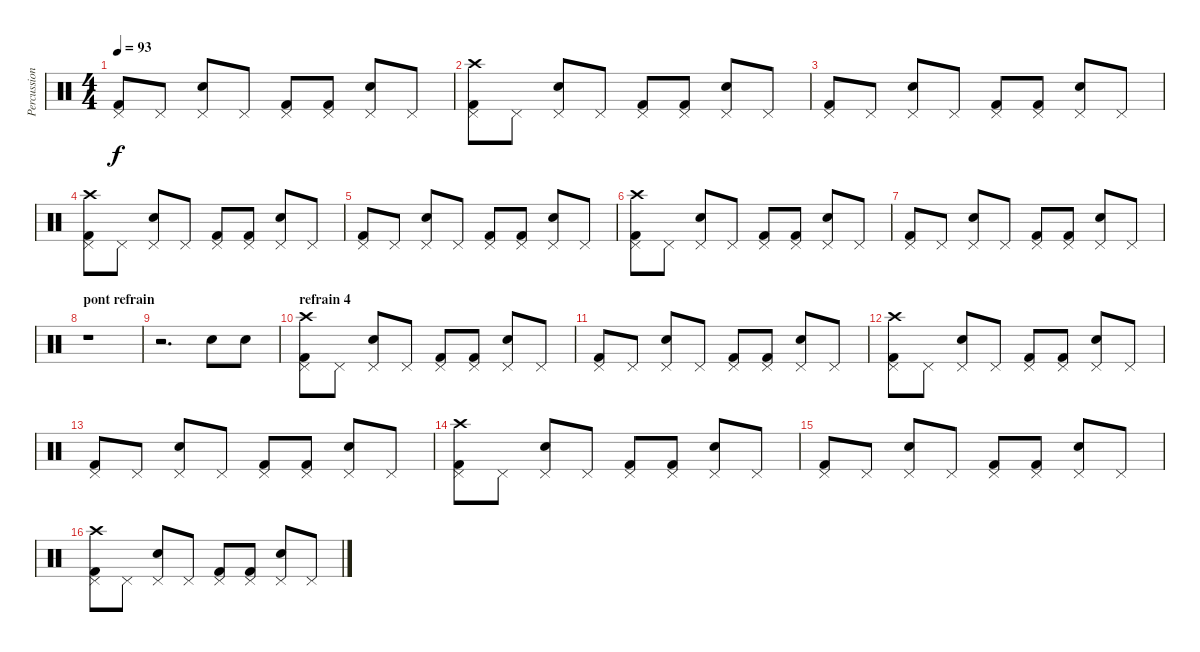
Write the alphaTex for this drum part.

\track ("Percussions" "Percussion") {instrument percussion}
\staff {score}
\articulation defaults
\ts (4 4)
\tempo 93
\clef neutral
\ks c
("Pedal Hi-Hat (hit)" "Kick (hit) 2").8{dy f} "Pedal Hi-Hat (hit)".8 ("Pedal Hi-Hat (hit)" "Electric Snare (hit)").8 "Pedal Hi-Hat (hit)".8 ("Pedal Hi-Hat (hit)" "Kick (hit) 2").8 ("Pedal Hi-Hat (hit)" "Kick (hit) 2").8 ("Pedal Hi-Hat (hit)" "Electric Snare (hit)").8 "Pedal Hi-Hat (hit)".8 |
("Pedal Hi-Hat (hit)" "Crash high (hit)" "Kick (hit) 2").8 "Pedal Hi-Hat (hit)".8 ("Pedal Hi-Hat (hit)" "Electric Snare (hit)").8 "Pedal Hi-Hat (hit)".8 ("Pedal Hi-Hat (hit)" "Kick (hit) 2").8 ("Pedal Hi-Hat (hit)" "Kick (hit) 2").8 ("Pedal Hi-Hat (hit)" "Electric Snare (hit)").8 "Pedal Hi-Hat (hit)".8 |
("Pedal Hi-Hat (hit)" "Kick (hit) 2").8 "Pedal Hi-Hat (hit)".8 ("Pedal Hi-Hat (hit)" "Electric Snare (hit)").8 "Pedal Hi-Hat (hit)".8 ("Pedal Hi-Hat (hit)" "Kick (hit) 2").8 ("Pedal Hi-Hat (hit)" "Kick (hit) 2").8 ("Pedal Hi-Hat (hit)" "Electric Snare (hit)").8 "Pedal Hi-Hat (hit)".8 |
("Pedal Hi-Hat (hit)" "Crash high (hit)" "Kick (hit) 2").8 "Pedal Hi-Hat (hit)".8 ("Pedal Hi-Hat (hit)" "Electric Snare (hit)").8 "Pedal Hi-Hat (hit)".8 ("Pedal Hi-Hat (hit)" "Kick (hit) 2").8 ("Pedal Hi-Hat (hit)" "Kick (hit) 2").8 ("Pedal Hi-Hat (hit)" "Electric Snare (hit)").8 "Pedal Hi-Hat (hit)".8 |
("Pedal Hi-Hat (hit)" "Kick (hit) 2").8 "Pedal Hi-Hat (hit)".8 ("Pedal Hi-Hat (hit)" "Electric Snare (hit)").8 "Pedal Hi-Hat (hit)".8 ("Pedal Hi-Hat (hit)" "Kick (hit) 2").8 ("Pedal Hi-Hat (hit)" "Kick (hit) 2").8 ("Pedal Hi-Hat (hit)" "Electric Snare (hit)").8 "Pedal Hi-Hat (hit)".8 |
("Pedal Hi-Hat (hit)" "Crash high (hit)" "Kick (hit) 2").8 "Pedal Hi-Hat (hit)".8 ("Pedal Hi-Hat (hit)" "Electric Snare (hit)").8 "Pedal Hi-Hat (hit)".8 ("Pedal Hi-Hat (hit)" "Kick (hit) 2").8 ("Pedal Hi-Hat (hit)" "Kick (hit) 2").8 ("Pedal Hi-Hat (hit)" "Electric Snare (hit)").8 "Pedal Hi-Hat (hit)".8 |
("Pedal Hi-Hat (hit)" "Kick (hit) 2").8 "Pedal Hi-Hat (hit)".8 ("Pedal Hi-Hat (hit)" "Electric Snare (hit)").8 "Pedal Hi-Hat (hit)".8 ("Pedal Hi-Hat (hit)" "Kick (hit) 2").8 ("Pedal Hi-Hat (hit)" "Kick (hit) 2").8 ("Pedal Hi-Hat (hit)" "Electric Snare (hit)").8 "Pedal Hi-Hat (hit)".8 |
\section ("" "pont refrain")
r.1 |
r.2{d} "Electric Snare (hit)".8 "Electric Snare (hit)".8 |
\section ("" "refrain 4")
("Pedal Hi-Hat (hit)" "Crash high (hit)" "Kick (hit) 2").8 "Pedal Hi-Hat (hit)".8 ("Pedal Hi-Hat (hit)" "Electric Snare (hit)").8 "Pedal Hi-Hat (hit)".8 ("Pedal Hi-Hat (hit)" "Kick (hit) 2").8 ("Pedal Hi-Hat (hit)" "Kick (hit) 2").8 ("Pedal Hi-Hat (hit)" "Electric Snare (hit)").8 "Pedal Hi-Hat (hit)".8 |
("Pedal Hi-Hat (hit)" "Kick (hit) 2").8 "Pedal Hi-Hat (hit)".8 ("Pedal Hi-Hat (hit)" "Electric Snare (hit)").8 "Pedal Hi-Hat (hit)".8 ("Pedal Hi-Hat (hit)" "Kick (hit) 2").8 ("Pedal Hi-Hat (hit)" "Kick (hit) 2").8 ("Pedal Hi-Hat (hit)" "Electric Snare (hit)").8 "Pedal Hi-Hat (hit)".8 |
("Pedal Hi-Hat (hit)" "Crash high (hit)" "Kick (hit) 2").8 "Pedal Hi-Hat (hit)".8 ("Pedal Hi-Hat (hit)" "Electric Snare (hit)").8 "Pedal Hi-Hat (hit)".8 ("Pedal Hi-Hat (hit)" "Kick (hit) 2").8 ("Pedal Hi-Hat (hit)" "Kick (hit) 2").8 ("Pedal Hi-Hat (hit)" "Electric Snare (hit)").8 "Pedal Hi-Hat (hit)".8 |
("Pedal Hi-Hat (hit)" "Kick (hit) 2").8 "Pedal Hi-Hat (hit)".8 ("Pedal Hi-Hat (hit)" "Electric Snare (hit)").8 "Pedal Hi-Hat (hit)".8 ("Pedal Hi-Hat (hit)" "Kick (hit) 2").8 ("Pedal Hi-Hat (hit)" "Kick (hit) 2").8 ("Pedal Hi-Hat (hit)" "Electric Snare (hit)").8 "Pedal Hi-Hat (hit)".8 |
("Pedal Hi-Hat (hit)" "Crash high (hit)" "Kick (hit) 2").8 "Pedal Hi-Hat (hit)".8 ("Pedal Hi-Hat (hit)" "Electric Snare (hit)").8 "Pedal Hi-Hat (hit)".8 ("Pedal Hi-Hat (hit)" "Kick (hit) 2").8 ("Pedal Hi-Hat (hit)" "Kick (hit) 2").8 ("Pedal Hi-Hat (hit)" "Electric Snare (hit)").8 "Pedal Hi-Hat (hit)".8 |
("Pedal Hi-Hat (hit)" "Kick (hit) 2").8 "Pedal Hi-Hat (hit)".8 ("Pedal Hi-Hat (hit)" "Electric Snare (hit)").8 "Pedal Hi-Hat (hit)".8 ("Pedal Hi-Hat (hit)" "Kick (hit) 2").8 ("Pedal Hi-Hat (hit)" "Kick (hit) 2").8 ("Pedal Hi-Hat (hit)" "Electric Snare (hit)").8 "Pedal Hi-Hat (hit)".8 |
("Pedal Hi-Hat (hit)" "Crash high (hit)" "Kick (hit) 2").8 "Pedal Hi-Hat (hit)".8 ("Pedal Hi-Hat (hit)" "Electric Snare (hit)").8 "Pedal Hi-Hat (hit)".8 ("Pedal Hi-Hat (hit)" "Kick (hit) 2").8 ("Pedal Hi-Hat (hit)" "Kick (hit) 2").8 ("Pedal Hi-Hat (hit)" "Electric Snare (hit)").8 "Pedal Hi-Hat (hit)".8
